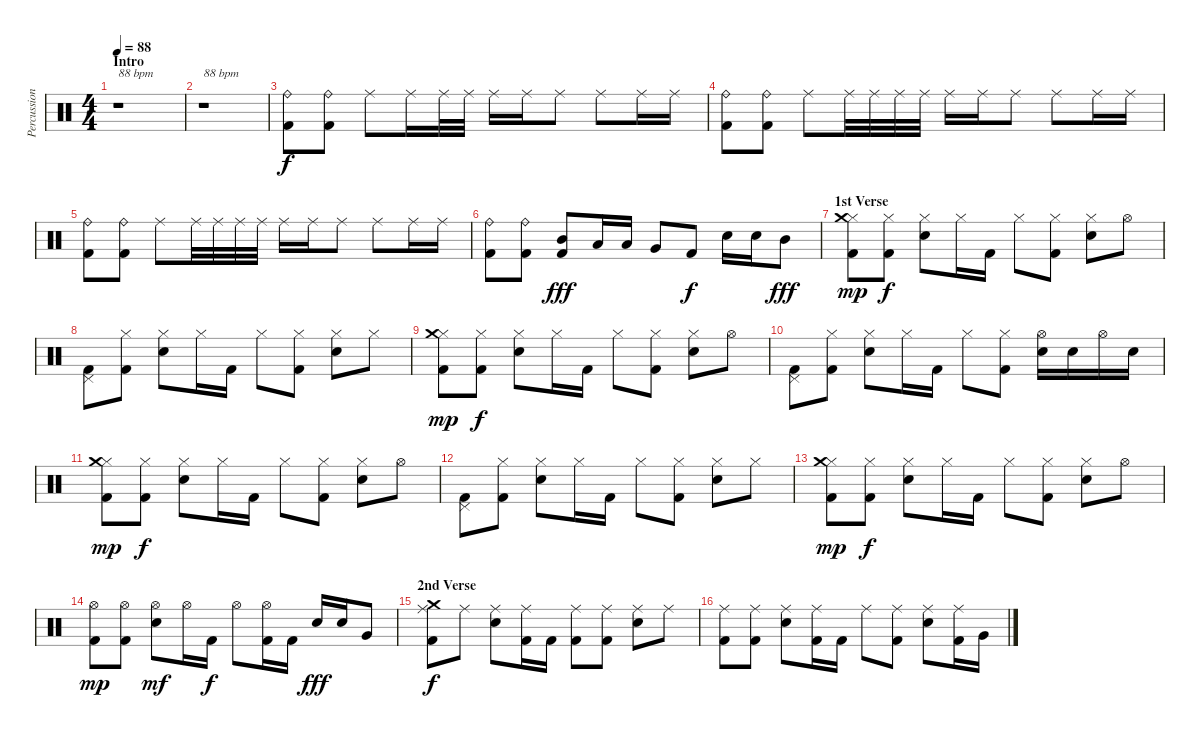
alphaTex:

\track ("Percussion" "Percussion") {instrument percussion}
\staff {score}
\articulation defaults
\ts (4 4)
\section ("" "Intro")
\tempo 88
\clef neutral
\ks c
r.1{txt "88 bpm" dy f} |
r.1{txt "88 bpm"} |
("Kick (hit) 2" "Ride (bell)").8 ("Kick (hit) 2" "Ride (bell)").8 "Ride (middle)".8 "Ride (middle)".16 "Ride (middle)".32 "Ride (middle)".32 "Ride (middle)".16 "Ride (middle)".16 "Ride (middle)".8 "Ride (middle)".8 "Ride (middle)".16 "Ride (middle)".16 |
("Kick (hit) 2" "Ride (bell)").8 ("Kick (hit) 2" "Ride (bell)").8 "Ride (middle)".8 "Ride (middle)".32 "Ride (middle)".32 "Ride (middle)".32 "Ride (middle)".32 "Ride (middle)".16 "Ride (middle)".16 "Ride (middle)".8 "Ride (middle)".8 "Ride (middle)".16 "Ride (middle)".16 |
("Kick (hit) 2" "Ride (bell)").8 ("Kick (hit) 2" "Ride (bell)").8 "Ride (middle)".8 "Ride (middle)".32 "Ride (middle)".32 "Ride (middle)".32 "Ride (middle)".32 "Ride (middle)".16 "Ride (middle)".16 "Ride (middle)".8 "Ride (middle)".8 "Ride (middle)".16 "Ride (middle)".16 |
("Kick (hit) 2" "Ride (bell)").8 ("Kick (hit) 2" "Ride (bell)").8 ("Kick (hit) 2" "Mid Tom (hit)").8{dy fff} "Low Tom (hit)".16 "Low Tom (hit)".16 "Very Low Tom (hit)".8 "Kick (hit) 2".8{dy f} "Electric Snare (hit)".16 "Electric Snare (hit)".16 "Mid Tom (hit)".8{dy fff} |
\section ("" "1st Verse")
("Kick (hit) 2" "Hi-Hat (closed)" "Crash medium (hit)").8{dy mp} ("Kick (hit) 2" "Hi-Hat (closed)").8{dy f} ("Electric Snare (hit)" "Hi-Hat (closed)").8 "Hi-Hat (closed)".16 "Kick (hit) 2".16 "Hi-Hat (closed)".8 ("Kick (hit) 2" "Hi-Hat (closed)").8 ("Electric Snare (hit)" "Hi-Hat (closed)").8 "Hi-Hat (open)".8 |
("Kick (hit) 2" "Pedal Hi-Hat (hit)").8 ("Kick (hit) 2" "Hi-Hat (closed)").8 ("Electric Snare (hit)" "Hi-Hat (closed)").8 "Hi-Hat (closed)".16 "Kick (hit) 2".16 "Hi-Hat (closed)".8 ("Kick (hit) 2" "Hi-Hat (closed)").8 ("Electric Snare (hit)" "Hi-Hat (closed)").8 "Hi-Hat (closed)".8 |
("Kick (hit) 2" "Hi-Hat (closed)" "Crash medium (hit)").8{dy mp} ("Kick (hit) 2" "Hi-Hat (closed)").8{dy f} ("Electric Snare (hit)" "Hi-Hat (closed)").8 "Hi-Hat (closed)".16 "Kick (hit) 2".16 "Hi-Hat (closed)".8 ("Kick (hit) 2" "Hi-Hat (closed)").8 ("Electric Snare (hit)" "Hi-Hat (closed)").8 "Hi-Hat (open)".8 |
("Kick (hit) 2" "Pedal Hi-Hat (hit)").8 ("Kick (hit) 2" "Hi-Hat (closed)").8 ("Electric Snare (hit)" "Hi-Hat (closed)").8 "Hi-Hat (closed)".16 "Kick (hit) 2".16 "Hi-Hat (closed)".8 ("Kick (hit) 2" "Hi-Hat (closed)").8 ("Electric Snare (hit)" "Hi-Hat (open)").16 "Electric Snare (hit)".16 "Hi-Hat (open)".16 "Electric Snare (hit)".16 |
("Kick (hit) 2" "Hi-Hat (closed)" "Crash medium (hit)").8{dy mp} ("Kick (hit) 2" "Hi-Hat (closed)").8{dy f} ("Electric Snare (hit)" "Hi-Hat (closed)").8 "Hi-Hat (closed)".16 "Kick (hit) 2".16 "Hi-Hat (closed)".8 ("Kick (hit) 2" "Hi-Hat (closed)").8 ("Electric Snare (hit)" "Hi-Hat (closed)").8 "Hi-Hat (open)".8 |
("Kick (hit) 2" "Pedal Hi-Hat (hit)").8 ("Kick (hit) 2" "Hi-Hat (closed)").8 ("Electric Snare (hit)" "Hi-Hat (closed)").8 "Hi-Hat (closed)".16 "Kick (hit) 2".16 "Hi-Hat (closed)".8 ("Kick (hit) 2" "Hi-Hat (closed)").8 ("Electric Snare (hit)" "Hi-Hat (closed)").8 "Hi-Hat (closed)".8 |
("Kick (hit) 2" "Hi-Hat (closed)" "Crash medium (hit)").8{dy mp} ("Kick (hit) 2" "Hi-Hat (closed)").8{dy f} ("Electric Snare (hit)" "Hi-Hat (closed)").8 "Hi-Hat (closed)".16 "Kick (hit) 2".16 "Hi-Hat (closed)".8 ("Kick (hit) 2" "Hi-Hat (closed)").8 ("Electric Snare (hit)" "Hi-Hat (closed)").8 "Hi-Hat (open)".8 |
("Kick (hit) 2" "Hi-Hat (open)").8{dy mp} ("Kick (hit) 2" "Hi-Hat (open)").8 ("Electric Snare (hit)" "Hi-Hat (open)").8{dy mf} "Hi-Hat (open)".16 "Kick (hit) 2".16{dy f} "Hi-Hat (open)".8 ("Kick (hit) 2" "Hi-Hat (open)").16 "Kick (hit) 2".16 "Electric Snare (hit)".16{dy fff} "Electric Snare (hit)".16 "Very Low Tom (hit)".8 |
\section ("" "2nd Verse")
("Kick (hit) 2" "Ride (middle)" "Crash medium (hit)").8{dy f} "Ride (middle)".8 ("Electric Snare (hit)" "Ride (middle)").8 ("Kick (hit) 2" "Ride (middle)").16 "Kick (hit) 2".16 ("Kick (hit) 2" "Ride (middle)").8 ("Kick (hit) 2" "Ride (middle)").8 ("Electric Snare (hit)" "Ride (middle)").8 "Ride (middle)".8 |
("Kick (hit) 2" "Ride (middle)").8 ("Kick (hit) 2" "Ride (middle)").8 ("Electric Snare (hit)" "Ride (middle)").8 ("Kick (hit) 2" "Ride (middle)").16 "Kick (hit) 2".16 "Ride (middle)".8 ("Kick (hit) 2" "Ride (middle)").8 ("Electric Snare (hit)" "Ride (middle)").8 ("Kick (hit) 2" "Ride (middle)").16 "Very Low Tom (hit)".16
